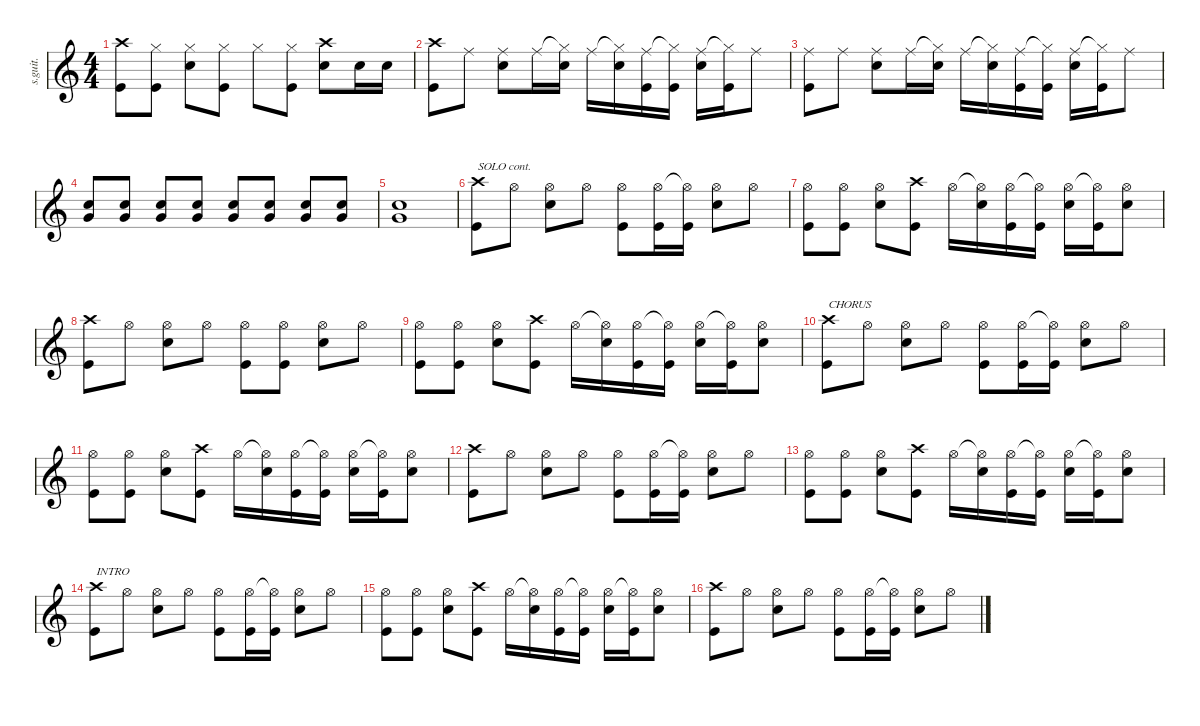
\defaultSystemsLayout 4
\hideDynamics
\bracketExtendMode nobrackets
\track ("Phil Selway" "s.guit.") {instrument percussion}
\staff {score}
\articulation defaults
\ts (4 4)
\tempo (88 hide)
\clef g2
\ks c
("Crash high (hit)" "Kick (hit)").8{lyrics (0 "") lyrics (1 "") lyrics (2 "") lyrics (3 "") lyrics (4 "") dy f} ("Hi-Hat (closed)" "Kick (hit)").8{lyrics (0 "") lyrics (1 "") lyrics (2 "") lyrics (3 "") lyrics (4 "")} ("Hi-Hat (closed)" "Snare (hit) 2").8{lyrics (0 "") lyrics (1 "") lyrics (2 "") lyrics (3 "") lyrics (4 "")} ("Hi-Hat (closed)" "Kick (hit)").8{lyrics (0 "") lyrics (1 "") lyrics (2 "") lyrics (3 "") lyrics (4 "")} "Hi-Hat (closed)".8{lyrics (0 "") lyrics (1 "") lyrics (2 "") lyrics (3 "") lyrics (4 "")} ("Hi-Hat (closed)" "Kick (hit)").8{lyrics (0 "") lyrics (1 "") lyrics (2 "") lyrics (3 "") lyrics (4 "")} ("Crash high (hit)" "Snare (hit) 2").8{lyrics (0 "") lyrics (1 "") lyrics (2 "") lyrics (3 "") lyrics (4 "")} "Snare (hit) 2".16{lyrics (0 "") lyrics (1 "") lyrics (2 "") lyrics (3 "") lyrics (4 "")} "Snare (hit) 2".16{lyrics (0 "") lyrics (1 "") lyrics (2 "") lyrics (3 "") lyrics (4 "")} |
("Crash high (hit)" "Kick (hit)").8{lyrics (0 "") lyrics (1 "") lyrics (2 "") lyrics (3 "") lyrics (4 "")} "Ride (middle)".8{lyrics (0 "") lyrics (1 "") lyrics (2 "") lyrics (3 "") lyrics (4 "")} ("Ride (middle)" "Snare (hit) 2").8{lyrics (0 "") lyrics (1 "") lyrics (2 "") lyrics (3 "") lyrics (4 "")} "Ride (middle)".16{lyrics (0 "") lyrics (1 "") lyrics (2 "") lyrics (3 "") lyrics (4 "")} ("Hi-Hat (closed)"{t} "Snare (hit) 2").16{lyrics (0 "") lyrics (1 "") lyrics (2 "") lyrics (3 "") lyrics (4 "")} "Ride (middle)".16{lyrics (0 "") lyrics (1 "") lyrics (2 "") lyrics (3 "") lyrics (4 "")} ("Hi-Hat (closed)"{t} "Snare (hit) 2").16{lyrics (0 "") lyrics (1 "") lyrics (2 "") lyrics (3 "") lyrics (4 "")} ("Ride (middle)" "Kick (hit)").16{lyrics (0 "") lyrics (1 "") lyrics (2 "") lyrics (3 "") lyrics (4 "")} ("Hi-Hat (closed)"{t} "Kick (hit)").16{lyrics (0 "") lyrics (1 "") lyrics (2 "") lyrics (3 "") lyrics (4 "")} ("Ride (middle)" "Snare (hit) 2").16{lyrics (0 "") lyrics (1 "") lyrics (2 "") lyrics (3 "") lyrics (4 "")} ("Hi-Hat (closed)"{t} "Kick (hit)").16{lyrics (0 "") lyrics (1 "") lyrics (2 "") lyrics (3 "") lyrics (4 "")} "Ride (middle)".8{lyrics (0 "") lyrics (1 "") lyrics (2 "") lyrics (3 "") lyrics (4 "")} |
("Ride (middle)" "Kick (hit)").8{lyrics (0 "") lyrics (1 "") lyrics (2 "") lyrics (3 "") lyrics (4 "")} "Ride (middle)".8{lyrics (0 "") lyrics (1 "") lyrics (2 "") lyrics (3 "") lyrics (4 "")} ("Ride (middle)" "Snare (hit) 2").8{lyrics (0 "") lyrics (1 "") lyrics (2 "") lyrics (3 "") lyrics (4 "")} "Ride (middle)".16{lyrics (0 "") lyrics (1 "") lyrics (2 "") lyrics (3 "") lyrics (4 "")} ("Hi-Hat (closed)"{t} "Snare (hit) 2").16{lyrics (0 "") lyrics (1 "") lyrics (2 "") lyrics (3 "") lyrics (4 "")} "Ride (middle)".16{lyrics (0 "") lyrics (1 "") lyrics (2 "") lyrics (3 "") lyrics (4 "")} ("Hi-Hat (closed)"{t} "Snare (hit) 2").16{lyrics (0 "") lyrics (1 "") lyrics (2 "") lyrics (3 "") lyrics (4 "")} ("Ride (middle)" "Kick (hit)").16{lyrics (0 "") lyrics (1 "") lyrics (2 "") lyrics (3 "") lyrics (4 "")} ("Hi-Hat (closed)"{t} "Kick (hit)").16{lyrics (0 "") lyrics (1 "") lyrics (2 "") lyrics (3 "") lyrics (4 "")} ("Ride (middle)" "Snare (hit) 2").16{lyrics (0 "") lyrics (1 "") lyrics (2 "") lyrics (3 "") lyrics (4 "")} ("Hi-Hat (closed)"{t} "Kick (hit)").16{lyrics (0 "") lyrics (1 "") lyrics (2 "") lyrics (3 "") lyrics (4 "")} "Ride (middle)".8{lyrics (0 "") lyrics (1 "") lyrics (2 "") lyrics (3 "") lyrics (4 "")} |
("Snare (hit) 2" "Very Low Tom (hit)").8{lyrics (0 "") lyrics (1 "") lyrics (2 "") lyrics (3 "") lyrics (4 "")} ("Snare (hit) 2" "Very Low Tom (hit)").8{lyrics (0 "") lyrics (1 "") lyrics (2 "") lyrics (3 "") lyrics (4 "")} ("Snare (hit) 2" "Very Low Tom (hit)").8{lyrics (0 "") lyrics (1 "") lyrics (2 "") lyrics (3 "") lyrics (4 "")} ("Snare (hit) 2" "Very Low Tom (hit)").8{lyrics (0 "") lyrics (1 "") lyrics (2 "") lyrics (3 "") lyrics (4 "")} ("Snare (hit) 2" "Very Low Tom (hit)").8{lyrics (0 "") lyrics (1 "") lyrics (2 "") lyrics (3 "") lyrics (4 "")} ("Snare (hit) 2" "Very Low Tom (hit)").8{lyrics (0 "") lyrics (1 "") lyrics (2 "") lyrics (3 "") lyrics (4 "")} ("Snare (hit) 2" "Very Low Tom (hit)").8{lyrics (0 "") lyrics (1 "") lyrics (2 "") lyrics (3 "") lyrics (4 "")} ("Snare (hit) 2" "Very Low Tom (hit)").8{lyrics (0 "") lyrics (1 "") lyrics (2 "") lyrics (3 "") lyrics (4 "")} |
("Snare (hit) 2" "Very Low Tom (hit)").1{lyrics (0 "") lyrics (1 "") lyrics (2 "") lyrics (3 "") lyrics (4 "")} |
("Crash high (hit)" "Kick (hit)").8{txt "SOLO cont." lyrics (0 "") lyrics (1 "") lyrics (2 "") lyrics (3 "") lyrics (4 "")} "Hi-Hat (open)".8{lyrics (0 "") lyrics (1 "") lyrics (2 "") lyrics (3 "") lyrics (4 "")} ("Hi-Hat (open)" "Snare (hit) 2").8{lyrics (0 "") lyrics (1 "") lyrics (2 "") lyrics (3 "") lyrics (4 "")} "Hi-Hat (open)".8{lyrics (0 "") lyrics (1 "") lyrics (2 "") lyrics (3 "") lyrics (4 "")} ("Hi-Hat (open)" "Kick (hit)").8{lyrics (0 "") lyrics (1 "") lyrics (2 "") lyrics (3 "") lyrics (4 "")} ("Hi-Hat (open)" "Kick (hit)").16{lyrics (0 "") lyrics (1 "") lyrics (2 "") lyrics (3 "") lyrics (4 "")} ("Hi-Hat (open)"{t} "Kick (hit)").16{lyrics (0 "") lyrics (1 "") lyrics (2 "") lyrics (3 "") lyrics (4 "")} ("Hi-Hat (open)" "Snare (hit) 2").8{lyrics (0 "") lyrics (1 "") lyrics (2 "") lyrics (3 "") lyrics (4 "")} "Hi-Hat (open)".8{lyrics (0 "") lyrics (1 "") lyrics (2 "") lyrics (3 "") lyrics (4 "")} |
("Hi-Hat (open)" "Kick (hit)").8{lyrics (0 "") lyrics (1 "") lyrics (2 "") lyrics (3 "") lyrics (4 "")} ("Hi-Hat (open)" "Kick (hit)").8{lyrics (0 "") lyrics (1 "") lyrics (2 "") lyrics (3 "") lyrics (4 "")} ("Hi-Hat (open)" "Snare (hit) 2").8{lyrics (0 "") lyrics (1 "") lyrics (2 "") lyrics (3 "") lyrics (4 "")} ("Crash high (hit)" "Kick (hit)").8{lyrics (0 "") lyrics (1 "") lyrics (2 "") lyrics (3 "") lyrics (4 "")} "Hi-Hat (open)".16{lyrics (0 "") lyrics (1 "") lyrics (2 "") lyrics (3 "") lyrics (4 "")} ("Hi-Hat (open)"{t} "Snare (hit) 2").16{lyrics (0 "") lyrics (1 "") lyrics (2 "") lyrics (3 "") lyrics (4 "")} ("Hi-Hat (open)" "Kick (hit)").16{lyrics (0 "") lyrics (1 "") lyrics (2 "") lyrics (3 "") lyrics (4 "")} ("Hi-Hat (open)"{t} "Kick (hit)").16{lyrics (0 "") lyrics (1 "") lyrics (2 "") lyrics (3 "") lyrics (4 "")} ("Hi-Hat (open)" "Snare (hit) 2").16{lyrics (0 "") lyrics (1 "") lyrics (2 "") lyrics (3 "") lyrics (4 "")} ("Hi-Hat (open)"{t} "Kick (hit)").16{lyrics (0 "") lyrics (1 "") lyrics (2 "") lyrics (3 "") lyrics (4 "")} ("Hi-Hat (open)" "Snare (hit) 2").8{lyrics (0 "") lyrics (1 "") lyrics (2 "") lyrics (3 "") lyrics (4 "")} |
("Crash high (hit)" "Kick (hit)").8{lyrics (0 "") lyrics (1 "") lyrics (2 "") lyrics (3 "") lyrics (4 "")} "Hi-Hat (open)".8{lyrics (0 "") lyrics (1 "") lyrics (2 "") lyrics (3 "") lyrics (4 "")} ("Hi-Hat (open)" "Snare (hit) 2").8{lyrics (0 "") lyrics (1 "") lyrics (2 "") lyrics (3 "") lyrics (4 "")} "Hi-Hat (open)".8{lyrics (0 "") lyrics (1 "") lyrics (2 "") lyrics (3 "") lyrics (4 "")} ("Hi-Hat (open)" "Kick (hit)").8{lyrics (0 "") lyrics (1 "") lyrics (2 "") lyrics (3 "") lyrics (4 "")} ("Hi-Hat (open)" "Kick (hit)").8{lyrics (0 "") lyrics (1 "") lyrics (2 "") lyrics (3 "") lyrics (4 "")} ("Hi-Hat (open)" "Snare (hit) 2").8{lyrics (0 "") lyrics (1 "") lyrics (2 "") lyrics (3 "") lyrics (4 "")} "Hi-Hat (open)".8{lyrics (0 "") lyrics (1 "") lyrics (2 "") lyrics (3 "") lyrics (4 "")} |
("Hi-Hat (open)" "Kick (hit)").8{lyrics (0 "") lyrics (1 "") lyrics (2 "") lyrics (3 "") lyrics (4 "")} ("Hi-Hat (open)" "Kick (hit)").8{lyrics (0 "") lyrics (1 "") lyrics (2 "") lyrics (3 "") lyrics (4 "")} ("Hi-Hat (open)" "Snare (hit) 2").8{lyrics (0 "") lyrics (1 "") lyrics (2 "") lyrics (3 "") lyrics (4 "")} ("Crash high (hit)" "Kick (hit)").8{lyrics (0 "") lyrics (1 "") lyrics (2 "") lyrics (3 "") lyrics (4 "")} "Hi-Hat (open)".16{lyrics (0 "") lyrics (1 "") lyrics (2 "") lyrics (3 "") lyrics (4 "")} ("Hi-Hat (open)"{t} "Snare (hit) 2").16{lyrics (0 "") lyrics (1 "") lyrics (2 "") lyrics (3 "") lyrics (4 "")} ("Hi-Hat (open)" "Kick (hit)").16{lyrics (0 "") lyrics (1 "") lyrics (2 "") lyrics (3 "") lyrics (4 "")} ("Hi-Hat (open)"{t} "Kick (hit)").16{lyrics (0 "") lyrics (1 "") lyrics (2 "") lyrics (3 "") lyrics (4 "")} ("Hi-Hat (open)" "Snare (hit) 2").16{lyrics (0 "") lyrics (1 "") lyrics (2 "") lyrics (3 "") lyrics (4 "")} ("Hi-Hat (open)"{t} "Kick (hit)").16{lyrics (0 "") lyrics (1 "") lyrics (2 "") lyrics (3 "") lyrics (4 "")} ("Hi-Hat (open)" "Snare (hit) 2").8{lyrics (0 "") lyrics (1 "") lyrics (2 "") lyrics (3 "") lyrics (4 "")} |
("Crash high (hit)" "Kick (hit)").8{txt "CHORUS" lyrics (0 "") lyrics (1 "") lyrics (2 "") lyrics (3 "") lyrics (4 "")} "Hi-Hat (open)".8{lyrics (0 "") lyrics (1 "") lyrics (2 "") lyrics (3 "") lyrics (4 "")} ("Hi-Hat (open)" "Snare (hit) 2").8{lyrics (0 "") lyrics (1 "") lyrics (2 "") lyrics (3 "") lyrics (4 "")} "Hi-Hat (open)".8{lyrics (0 "") lyrics (1 "") lyrics (2 "") lyrics (3 "") lyrics (4 "")} ("Hi-Hat (open)" "Kick (hit)").8{lyrics (0 "") lyrics (1 "") lyrics (2 "") lyrics (3 "") lyrics (4 "")} ("Hi-Hat (open)" "Kick (hit)").16{lyrics (0 "") lyrics (1 "") lyrics (2 "") lyrics (3 "") lyrics (4 "")} ("Hi-Hat (open)"{t} "Kick (hit)").16{lyrics (0 "") lyrics (1 "") lyrics (2 "") lyrics (3 "") lyrics (4 "")} ("Hi-Hat (open)" "Snare (hit) 2").8{lyrics (0 "") lyrics (1 "") lyrics (2 "") lyrics (3 "") lyrics (4 "")} "Hi-Hat (open)".8{lyrics (0 "") lyrics (1 "") lyrics (2 "") lyrics (3 "") lyrics (4 "")} |
("Hi-Hat (open)" "Kick (hit)").8{lyrics (0 "") lyrics (1 "") lyrics (2 "") lyrics (3 "") lyrics (4 "")} ("Hi-Hat (open)" "Kick (hit)").8{lyrics (0 "") lyrics (1 "") lyrics (2 "") lyrics (3 "") lyrics (4 "")} ("Hi-Hat (open)" "Snare (hit) 2").8{lyrics (0 "") lyrics (1 "") lyrics (2 "") lyrics (3 "") lyrics (4 "")} ("Crash high (hit)" "Kick (hit)").8{lyrics (0 "") lyrics (1 "") lyrics (2 "") lyrics (3 "") lyrics (4 "")} "Hi-Hat (open)".16{lyrics (0 "") lyrics (1 "") lyrics (2 "") lyrics (3 "") lyrics (4 "")} ("Hi-Hat (open)"{t} "Snare (hit) 2").16{lyrics (0 "") lyrics (1 "") lyrics (2 "") lyrics (3 "") lyrics (4 "")} ("Hi-Hat (open)" "Kick (hit)").16{lyrics (0 "") lyrics (1 "") lyrics (2 "") lyrics (3 "") lyrics (4 "")} ("Hi-Hat (open)"{t} "Kick (hit)").16{lyrics (0 "") lyrics (1 "") lyrics (2 "") lyrics (3 "") lyrics (4 "")} ("Hi-Hat (open)" "Snare (hit) 2").16{lyrics (0 "") lyrics (1 "") lyrics (2 "") lyrics (3 "") lyrics (4 "")} ("Hi-Hat (open)"{t} "Kick (hit)").16{lyrics (0 "") lyrics (1 "") lyrics (2 "") lyrics (3 "") lyrics (4 "")} ("Hi-Hat (open)" "Snare (hit) 2").8{lyrics (0 "") lyrics (1 "") lyrics (2 "") lyrics (3 "") lyrics (4 "")} |
("Crash high (hit)" "Kick (hit)").8{lyrics (0 "") lyrics (1 "") lyrics (2 "") lyrics (3 "") lyrics (4 "")} "Hi-Hat (open)".8{lyrics (0 "") lyrics (1 "") lyrics (2 "") lyrics (3 "") lyrics (4 "")} ("Hi-Hat (open)" "Snare (hit) 2").8{lyrics (0 "") lyrics (1 "") lyrics (2 "") lyrics (3 "") lyrics (4 "")} "Hi-Hat (open)".8{lyrics (0 "") lyrics (1 "") lyrics (2 "") lyrics (3 "") lyrics (4 "")} ("Hi-Hat (open)" "Kick (hit)").8{lyrics (0 "") lyrics (1 "") lyrics (2 "") lyrics (3 "") lyrics (4 "")} ("Hi-Hat (open)" "Kick (hit)").16{lyrics (0 "") lyrics (1 "") lyrics (2 "") lyrics (3 "") lyrics (4 "")} ("Hi-Hat (open)"{t} "Kick (hit)").16{lyrics (0 "") lyrics (1 "") lyrics (2 "") lyrics (3 "") lyrics (4 "")} ("Hi-Hat (open)" "Snare (hit) 2").8{lyrics (0 "") lyrics (1 "") lyrics (2 "") lyrics (3 "") lyrics (4 "")} "Hi-Hat (open)".8{lyrics (0 "") lyrics (1 "") lyrics (2 "") lyrics (3 "") lyrics (4 "")} |
("Hi-Hat (open)" "Kick (hit)").8{lyrics (0 "") lyrics (1 "") lyrics (2 "") lyrics (3 "") lyrics (4 "")} ("Hi-Hat (open)" "Kick (hit)").8{lyrics (0 "") lyrics (1 "") lyrics (2 "") lyrics (3 "") lyrics (4 "")} ("Hi-Hat (open)" "Snare (hit) 2").8{lyrics (0 "") lyrics (1 "") lyrics (2 "") lyrics (3 "") lyrics (4 "")} ("Crash high (hit)" "Kick (hit)").8{lyrics (0 "") lyrics (1 "") lyrics (2 "") lyrics (3 "") lyrics (4 "")} "Hi-Hat (open)".16{lyrics (0 "") lyrics (1 "") lyrics (2 "") lyrics (3 "") lyrics (4 "")} ("Hi-Hat (open)"{t} "Snare (hit) 2").16{lyrics (0 "") lyrics (1 "") lyrics (2 "") lyrics (3 "") lyrics (4 "")} ("Hi-Hat (open)" "Kick (hit)").16{lyrics (0 "") lyrics (1 "") lyrics (2 "") lyrics (3 "") lyrics (4 "")} ("Hi-Hat (open)"{t} "Kick (hit)").16{lyrics (0 "") lyrics (1 "") lyrics (2 "") lyrics (3 "") lyrics (4 "")} ("Hi-Hat (open)" "Snare (hit) 2").16{lyrics (0 "") lyrics (1 "") lyrics (2 "") lyrics (3 "") lyrics (4 "")} ("Hi-Hat (open)"{t} "Kick (hit)").16{lyrics (0 "") lyrics (1 "") lyrics (2 "") lyrics (3 "") lyrics (4 "")} ("Hi-Hat (open)" "Snare (hit) 2").8{lyrics (0 "") lyrics (1 "") lyrics (2 "") lyrics (3 "") lyrics (4 "")} |
("Crash high (hit)" "Kick (hit)").8{txt "INTRO" lyrics (0 "") lyrics (1 "") lyrics (2 "") lyrics (3 "") lyrics (4 "")} "Hi-Hat (open)".8{lyrics (0 "") lyrics (1 "") lyrics (2 "") lyrics (3 "") lyrics (4 "")} ("Hi-Hat (open)" "Snare (hit) 2").8{lyrics (0 "") lyrics (1 "") lyrics (2 "") lyrics (3 "") lyrics (4 "")} "Hi-Hat (open)".8{lyrics (0 "") lyrics (1 "") lyrics (2 "") lyrics (3 "") lyrics (4 "")} ("Hi-Hat (open)" "Kick (hit)").8{lyrics (0 "") lyrics (1 "") lyrics (2 "") lyrics (3 "") lyrics (4 "")} ("Hi-Hat (open)" "Kick (hit)").16{lyrics (0 "") lyrics (1 "") lyrics (2 "") lyrics (3 "") lyrics (4 "")} ("Hi-Hat (open)"{t} "Kick (hit)").16{lyrics (0 "") lyrics (1 "") lyrics (2 "") lyrics (3 "") lyrics (4 "")} ("Hi-Hat (open)" "Snare (hit) 2").8{lyrics (0 "") lyrics (1 "") lyrics (2 "") lyrics (3 "") lyrics (4 "")} "Hi-Hat (open)".8{lyrics (0 "") lyrics (1 "") lyrics (2 "") lyrics (3 "") lyrics (4 "")} |
("Hi-Hat (open)" "Kick (hit)").8{lyrics (0 "") lyrics (1 "") lyrics (2 "") lyrics (3 "") lyrics (4 "")} ("Hi-Hat (open)" "Kick (hit)").8{lyrics (0 "") lyrics (1 "") lyrics (2 "") lyrics (3 "") lyrics (4 "")} ("Hi-Hat (open)" "Snare (hit) 2").8{lyrics (0 "") lyrics (1 "") lyrics (2 "") lyrics (3 "") lyrics (4 "")} ("Crash high (hit)" "Kick (hit)").8{lyrics (0 "") lyrics (1 "") lyrics (2 "") lyrics (3 "") lyrics (4 "")} "Hi-Hat (open)".16{lyrics (0 "") lyrics (1 "") lyrics (2 "") lyrics (3 "") lyrics (4 "")} ("Hi-Hat (open)"{t} "Snare (hit) 2").16{lyrics (0 "") lyrics (1 "") lyrics (2 "") lyrics (3 "") lyrics (4 "")} ("Hi-Hat (open)" "Kick (hit)").16{lyrics (0 "") lyrics (1 "") lyrics (2 "") lyrics (3 "") lyrics (4 "")} ("Hi-Hat (open)"{t} "Kick (hit)").16{lyrics (0 "") lyrics (1 "") lyrics (2 "") lyrics (3 "") lyrics (4 "")} ("Hi-Hat (open)" "Snare (hit) 2").16{lyrics (0 "") lyrics (1 "") lyrics (2 "") lyrics (3 "") lyrics (4 "")} ("Hi-Hat (open)"{t} "Kick (hit)").16{lyrics (0 "") lyrics (1 "") lyrics (2 "") lyrics (3 "") lyrics (4 "")} ("Hi-Hat (open)" "Snare (hit) 2").8{lyrics (0 "") lyrics (1 "") lyrics (2 "") lyrics (3 "") lyrics (4 "")} |
("Crash high (hit)" "Kick (hit)").8{lyrics (0 "") lyrics (1 "") lyrics (2 "") lyrics (3 "") lyrics (4 "")} "Hi-Hat (open)".8{lyrics (0 "") lyrics (1 "") lyrics (2 "") lyrics (3 "") lyrics (4 "")} ("Hi-Hat (open)" "Snare (hit) 2").8{lyrics (0 "") lyrics (1 "") lyrics (2 "") lyrics (3 "") lyrics (4 "")} "Hi-Hat (open)".8{lyrics (0 "") lyrics (1 "") lyrics (2 "") lyrics (3 "") lyrics (4 "")} ("Hi-Hat (open)" "Kick (hit)").8{lyrics (0 "") lyrics (1 "") lyrics (2 "") lyrics (3 "") lyrics (4 "")} ("Hi-Hat (open)" "Kick (hit)").16{lyrics (0 "") lyrics (1 "") lyrics (2 "") lyrics (3 "") lyrics (4 "")} ("Hi-Hat (open)"{t} "Kick (hit)").16{lyrics (0 "") lyrics (1 "") lyrics (2 "") lyrics (3 "") lyrics (4 "")} ("Hi-Hat (open)" "Snare (hit) 2").8{lyrics (0 "") lyrics (1 "") lyrics (2 "") lyrics (3 "") lyrics (4 "")} "Hi-Hat (open)".8{lyrics (0 "") lyrics (1 "") lyrics (2 "") lyrics (3 "") lyrics (4 "")}
